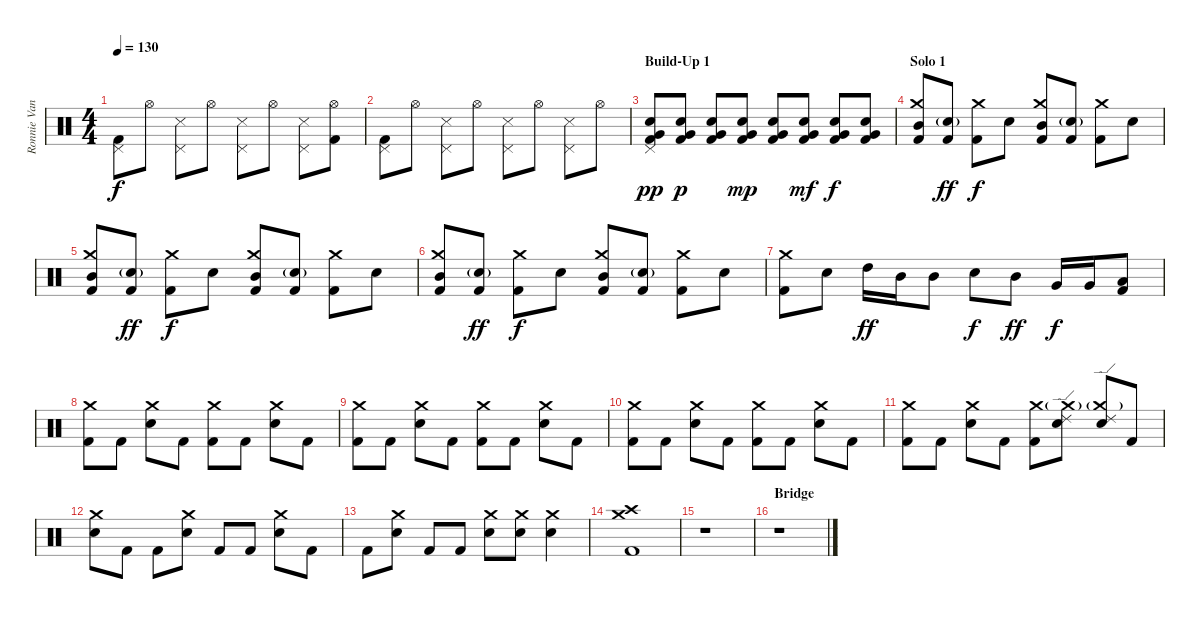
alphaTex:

\track ("Ronnie Vannucci Jr." "Ronnie Van") {instrument percussion}
\staff {score}
\articulation defaults
\ts (4 4)
\tempo 130
\clef neutral
\ks c
("Pedal Hi-Hat (hit)" "Kick (hit) 2").8{dy f} "Hi-Hat (open)".8 ("Pedal Hi-Hat (hit)" "Snare (side stick) 3").8 "Hi-Hat (open)".8 ("Pedal Hi-Hat (hit)" "Snare (side stick) 3").8 "Hi-Hat (open)".8 ("Pedal Hi-Hat (hit)" "Snare (side stick) 3").8 ("Hi-Hat (open)" "Kick (hit) 2").8 |
("Pedal Hi-Hat (hit)" "Kick (hit) 2").8 "Hi-Hat (open)".8 ("Pedal Hi-Hat (hit)" "Snare (side stick) 3").8 "Hi-Hat (open)".8 ("Pedal Hi-Hat (hit)" "Snare (side stick) 3").8 "Hi-Hat (open)".8 ("Pedal Hi-Hat (hit)" "Snare (side stick) 3").8 "Hi-Hat (open)".8 |
\section ("" "Build-Up 1")
("Pedal Hi-Hat (hit)" "Very Low Tom (hit)" "Electric Snare (hit)" "Kick (hit) 2").8{dy pp} ("Very Low Tom (hit)" "Electric Snare (hit)" "Kick (hit) 2").8{dy p} ("Very Low Tom (hit)" "Electric Snare (hit)" "Kick (hit) 2").8 ("Very Low Tom (hit)" "Electric Snare (hit)" "Kick (hit) 2").8{dy mp} ("Very Low Tom (hit)" "Electric Snare (hit)" "Kick (hit) 2").8 ("Very Low Tom (hit)" "Electric Snare (hit)" "Kick (hit) 2").8{dy mf} ("Very Low Tom (hit)" "Electric Snare (hit)" "Kick (hit) 2").8{dy f} ("Very Low Tom (hit)" "Electric Snare (hit)" "Kick (hit) 2").8 |
\section ("" "Solo 1")
("Crash medium (hit)" "Mid Tom (hit)" "Kick (hit) 2").8 ("Electric Snare (hit)"{g} "Kick (hit) 2").8{dy ff} ("Crash medium (hit)" "Kick (hit) 2").8{dy f} "Electric Snare (hit)".8 ("Crash medium (hit)" "Mid Tom (hit)" "Kick (hit) 2").8 ("Electric Snare (hit)"{g} "Kick (hit) 2").8 ("Crash medium (hit)" "Kick (hit) 2").8 "Electric Snare (hit)".8 |
("Crash medium (hit)" "Mid Tom (hit)" "Kick (hit) 2").8 ("Electric Snare (hit)"{g} "Kick (hit) 2").8{dy ff} ("Crash medium (hit)" "Kick (hit) 2").8{dy f} "Electric Snare (hit)".8 ("Crash medium (hit)" "Mid Tom (hit)" "Kick (hit) 2").8 ("Electric Snare (hit)"{g} "Kick (hit) 2").8 ("Crash medium (hit)" "Kick (hit) 2").8 "Electric Snare (hit)".8 |
("Crash medium (hit)" "Mid Tom (hit)" "Kick (hit) 2").8 ("Electric Snare (hit)"{g} "Kick (hit) 2").8{dy ff} ("Crash medium (hit)" "Kick (hit) 2").8{dy f} "Electric Snare (hit)".8 ("Crash medium (hit)" "Mid Tom (hit)" "Kick (hit) 2").8 ("Electric Snare (hit)"{g} "Kick (hit) 2").8 ("Crash medium (hit)" "Kick (hit) 2").8 "Electric Snare (hit)".8 |
("Crash medium (hit)" "Kick (hit) 2").8 "Electric Snare (hit)".8 "High Tom (hit)".16{dy ff} "Mid Tom (hit)".16 "Mid Tom (hit)".8 "Electric Snare (hit)".8{dy f} "Mid Tom (hit)".8{dy ff} "Very Low Tom (hit)".16{dy f} "Very Low Tom (hit)".16 ("Low Floor Tom (hit)" "Kick (hit) 2").8 |
("Crash medium (hit)" "Kick (hit) 2").8 "Kick (hit) 2".8 ("Crash medium (hit)" "Electric Snare (hit)").8 "Kick (hit) 2".8 ("Crash medium (hit)" "Kick (hit) 2").8 "Kick (hit) 2".8 ("Crash medium (hit)" "Electric Snare (hit)").8 "Kick (hit) 2".8 |
("Crash medium (hit)" "Kick (hit) 2").8 "Kick (hit) 2".8 ("Crash medium (hit)" "Electric Snare (hit)").8 "Kick (hit) 2".8 ("Crash medium (hit)" "Kick (hit) 2").8 "Kick (hit) 2".8 ("Crash medium (hit)" "Electric Snare (hit)").8 "Kick (hit) 2".8 |
("Crash medium (hit)" "Kick (hit) 2").8 "Kick (hit) 2".8 ("Crash medium (hit)" "Electric Snare (hit)").8 "Kick (hit) 2".8 ("Crash medium (hit)" "Kick (hit) 2").8 "Kick (hit) 2".8 ("Crash medium (hit)" "Electric Snare (hit)").8 "Kick (hit) 2".8 |
("Crash medium (hit)" "Kick (hit) 2").8 "Kick (hit) 2".8 ("Crash medium (hit)" "Electric Snare (hit)").8 "Kick (hit) 2".8 ("Crash medium (hit)" "Kick (hit) 2").8 ("Crash medium (hit)"{g} "Ride (edge) 2" "Electric Snare (hit)").8 ("Crash medium (hit)"{g} "Ride (edge) 2" "Electric Snare (hit)").8 "Kick (hit) 2".8 |
("Crash medium (hit)" "Electric Snare (hit)").8 "Kick (hit) 2".8 "Kick (hit) 2".8 ("Crash medium (hit)" "Electric Snare (hit)").8 "Kick (hit) 2".8 "Kick (hit) 2".8 ("Crash medium (hit)" "Electric Snare (hit)").8 "Kick (hit) 2".8 |
"Kick (hit) 2".8 ("Crash medium (hit)" "Electric Snare (hit)").8 "Kick (hit) 2".8 "Kick (hit) 2".8 ("Crash medium (hit)" "Electric Snare (hit)").8 ("Crash medium (hit)" "Electric Snare (hit)").8 ("Crash medium (hit)" "Electric Snare (hit)").4 |
("Crash high (hit)" "Crash medium (hit)" "Kick (hit) 2").1 |
r.1 |
\section ("" "Bridge")
r.1
